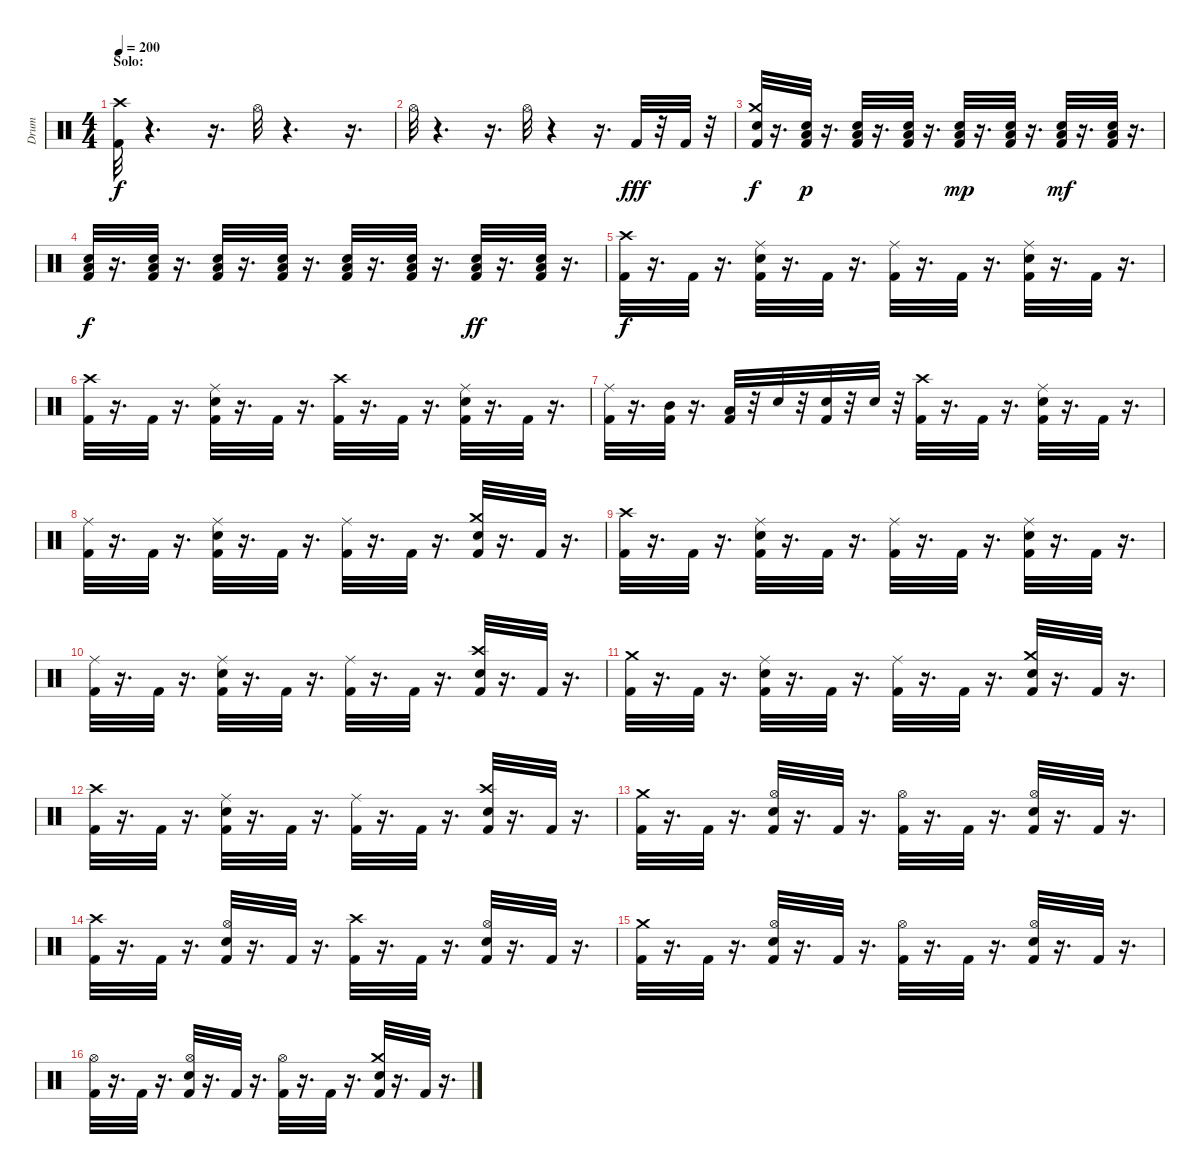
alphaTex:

\track ("Drum" "Drum") {instrument percussion}
\staff {score}
\articulation defaults
\ts (4 4)
\section ("" "Solo:")
\tempo 200
\clef neutral
\ks c
("Kick (hit) 2" "Crash high (hit)").32{dy f} r.4{d} r.16{d} "Hi-Hat (open)".32 r.4{d} r.16{d} |
"Hi-Hat (open)".32 r.4{d} r.16{d} "Hi-Hat (open)".32 r.4 r.16{d} "Kick (hit) 2".32{dy fff} r.32 "Kick (hit) 2".32 r.32 |
("Crash medium (hit)" "Electric Snare (hit)" "Kick (hit) 2").32{dy f} r.16{d} ("Low Floor Tom (hit)" "Snare (hit) 2" "Kick (hit) 2").32{dy p} r.16{d} ("Kick (hit) 2" "Snare (hit) 2" "Low Floor Tom (hit)").32 r.16{d} ("Kick (hit) 2" "Low Floor Tom (hit)" "Snare (hit) 2").32 r.16{d} ("Kick (hit) 2" "Low Floor Tom (hit)" "Snare (hit) 2").32{dy mp} r.16{d} ("Kick (hit) 2" "Low Floor Tom (hit)" "Snare (hit) 2").32 r.16{d} ("Kick (hit) 2" "Snare (hit) 2" "Low Floor Tom (hit)").32{dy mf} r.16{d} ("Kick (hit) 2" "Snare (hit) 2" "Low Floor Tom (hit)").32 r.16{d} |
("Kick (hit) 2" "Low Floor Tom (hit)" "Snare (hit) 2").32{dy f} r.16{d} ("Kick (hit) 2" "Snare (hit) 2" "Low Floor Tom (hit)").32 r.16{d} ("Kick (hit) 2" "Snare (hit) 2" "Low Floor Tom (hit)").32 r.16{d} ("Kick (hit) 2" "Low Floor Tom (hit)" "Snare (hit) 2").32 r.16{d} ("Kick (hit) 2" "Snare (hit) 2" "Low Floor Tom (hit)").32 r.16{d} ("Kick (hit) 2" "Snare (hit) 2" "Low Floor Tom (hit)").32 r.16{d} ("Kick (hit) 2" "Low Floor Tom (hit)" "Snare (hit) 2").32{dy ff} r.16{d} ("Kick (hit) 2" "Snare (hit) 2" "Low Floor Tom (hit)").32 r.16{d} |
("Crash high (hit)" "Kick (hit) 2").32{dy f} r.16{d} "Kick (hit) 2".32 r.16{d} ("Ride (middle)" "Snare (hit) 2" "Kick (hit) 2").32 r.16{d} "Kick (hit) 2".32 r.16{d} ("Ride (middle)" "Kick (hit) 2").32 r.16{d} "Kick (hit) 2".32 r.16{d} ("Ride (middle)" "Snare (hit) 2" "Kick (hit) 2").32 r.16{d} "Kick (hit) 2".32 r.16{d} |
("Crash high (hit)" "Kick (hit) 2").32 r.16{d} "Kick (hit) 2".32 r.16{d} ("Ride (middle)" "Snare (hit) 2" "Kick (hit) 2").32 r.16{d} "Kick (hit) 2".32 r.16{d} ("Crash high (hit)" "Kick (hit) 2").32 r.16{d} "Kick (hit) 2".32 r.16{d} ("Ride (middle)" "Snare (hit) 2" "Kick (hit) 2").32 r.16{d} "Kick (hit) 2".32 r.16{d} |
("Ride (middle)" "Kick (hit) 2").32 r.16{d} ("Mid Tom (hit)" "Kick (hit) 2").32 r.16{d} ("Low Tom (hit)" "Kick (hit) 2").32 r.32 "Snare (hit) 2".32 r.32 ("Snare (hit) 2" "Kick (hit) 2").32 r.32 "Snare (hit) 2".32 r.32 ("Crash high (hit)" "Kick (hit) 2").32 r.16{d} "Kick (hit) 2".32 r.16{d} ("Ride (middle)" "Snare (hit) 2" "Kick (hit) 2").32 r.16{d} "Kick (hit) 2".32 r.16{d} |
("Ride (middle)" "Kick (hit) 2").32 r.16{d} "Kick (hit) 2".32 r.16{d} ("Ride (middle)" "Snare (hit) 2" "Kick (hit) 2").32 r.16{d} "Kick (hit) 2".32 r.16{d} ("Ride (middle)" "Kick (hit) 2").32 r.16{d} "Kick (hit) 2".32 r.16{d} ("Crash medium (hit)" "Snare (hit) 2" "Kick (hit) 2").32 r.16{d} "Kick (hit) 2".32 r.16{d} |
("Crash high (hit)" "Kick (hit) 2").32 r.16{d} "Kick (hit) 2".32 r.16{d} ("Ride (middle)" "Snare (hit) 2" "Kick (hit) 2").32 r.16{d} "Kick (hit) 2".32 r.16{d} ("Ride (middle)" "Kick (hit) 2").32 r.16{d} "Kick (hit) 2".32 r.16{d} ("Ride (middle)" "Snare (hit) 2" "Kick (hit) 2").32 r.16{d} "Kick (hit) 2".32 r.16{d} |
("Ride (middle)" "Kick (hit) 2").32 r.16{d} "Kick (hit) 2".32 r.16{d} ("Ride (middle)" "Snare (hit) 2" "Kick (hit) 2").32 r.16{d} "Kick (hit) 2".32 r.16{d} ("Ride (middle)" "Kick (hit) 2").32 r.16{d} "Kick (hit) 2".32 r.16{d} ("Crash high (hit)" "Snare (hit) 2" "Kick (hit) 2").32 r.16{d} "Kick (hit) 2".32 r.16{d} |
("Crash medium (hit)" "Kick (hit) 2").32 r.16{d} "Kick (hit) 2".32 r.16{d} ("Ride (middle)" "Snare (hit) 2" "Kick (hit) 2").32 r.16{d} "Kick (hit) 2".32 r.16{d} ("Ride (middle)" "Kick (hit) 2").32 r.16{d} "Kick (hit) 2".32 r.16{d} ("Crash medium (hit)" "Snare (hit) 2" "Kick (hit) 2").32 r.16{d} "Kick (hit) 2".32 r.16{d} |
("Crash high (hit)" "Kick (hit) 2").32 r.16{d} "Kick (hit) 2".32 r.16{d} ("Ride (middle)" "Snare (hit) 2" "Kick (hit) 2").32 r.16{d} "Kick (hit) 2".32 r.16{d} ("Ride (middle)" "Kick (hit) 2").32 r.16{d} "Kick (hit) 2".32 r.16{d} ("Crash high (hit)" "Snare (hit) 2" "Kick (hit) 2").32 r.16{d} "Kick (hit) 2".32 r.16{d} |
("Crash medium (hit)" "Kick (hit) 2").32 r.16{d} "Kick (hit) 2".32 r.16{d} ("Hi-Hat (open)" "Snare (hit) 2" "Kick (hit) 2").32 r.16{d} "Kick (hit) 2".32 r.16{d} ("Hi-Hat (open)" "Kick (hit) 2").32 r.16{d} "Kick (hit) 2".32 r.16{d} ("Hi-Hat (open)" "Snare (hit) 2" "Kick (hit) 2").32 r.16{d} "Kick (hit) 2".32 r.16{d} |
("Crash high (hit)" "Kick (hit) 2").32 r.16{d} "Kick (hit) 2".32 r.16{d} ("Hi-Hat (open)" "Snare (hit) 2" "Kick (hit) 2").32 r.16{d} "Kick (hit) 2".32 r.16{d} ("Crash high (hit)" "Kick (hit) 2").32 r.16{d} "Kick (hit) 2".32 r.16{d} ("Hi-Hat (open)" "Snare (hit) 2" "Kick (hit) 2").32 r.16{d} "Kick (hit) 2".32 r.16{d} |
("Crash medium (hit)" "Kick (hit) 2").32 r.16{d} "Kick (hit) 2".32 r.16{d} ("Hi-Hat (open)" "Snare (hit) 2" "Kick (hit) 2").32 r.16{d} "Kick (hit) 2".32 r.16{d} ("Hi-Hat (open)" "Kick (hit) 2").32 r.16{d} "Kick (hit) 2".32 r.16{d} ("Hi-Hat (open)" "Snare (hit) 2" "Kick (hit) 2").32 r.16{d} "Kick (hit) 2".32 r.16{d} |
("Hi-Hat (open)" "Kick (hit) 2").32 r.16{d} "Kick (hit) 2".32 r.16{d} ("Hi-Hat (open)" "Snare (hit) 2" "Kick (hit) 2").32 r.16{d} "Kick (hit) 2".32 r.16{d} ("Hi-Hat (open)" "Kick (hit) 2").32 r.16{d} "Kick (hit) 2".32 r.16{d} ("Crash medium (hit)" "Snare (hit) 2" "Kick (hit) 2").32 r.16{d} "Kick (hit) 2".32 r.16{d}
